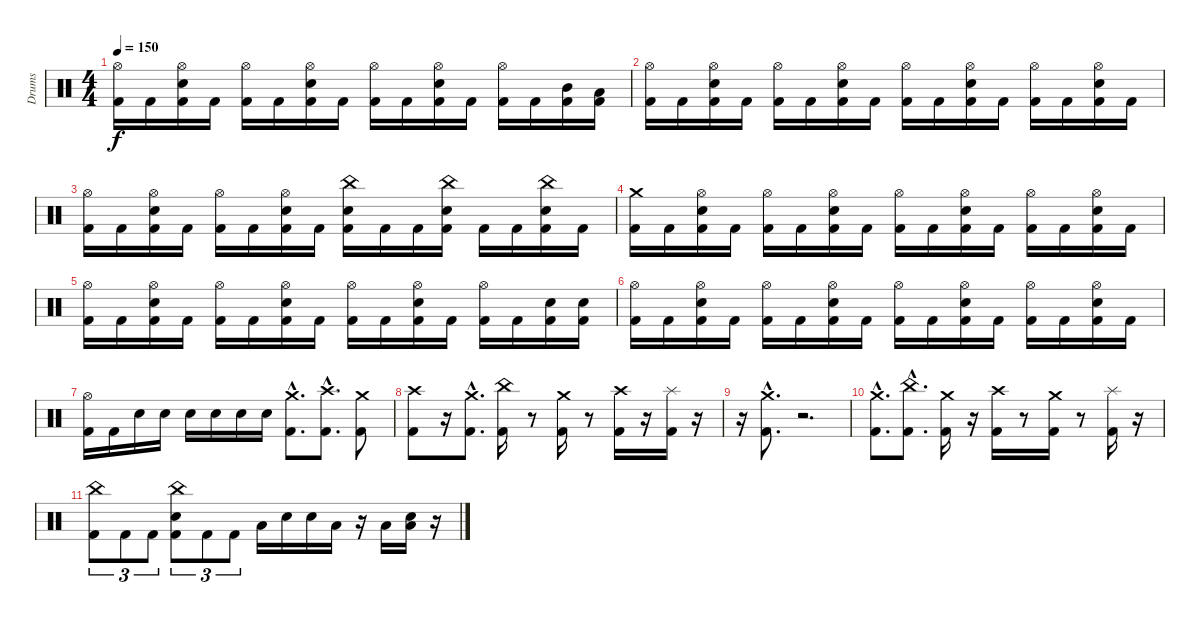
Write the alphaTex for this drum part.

\track ("Drums" "Drums") {instrument percussion}
\staff {score}
\articulation defaults
\ts (4 4)
\tempo 150
\clef neutral
\ks c
("Hi-Hat (open)" "Kick (hit) 2").16{dy f} "Kick (hit) 2".16 ("Hi-Hat (open)" "Electric Snare (hit)" "Kick (hit) 2").16 "Kick (hit) 2".16 ("Hi-Hat (open)" "Kick (hit) 2").16 "Kick (hit) 2".16 ("Hi-Hat (open)" "Electric Snare (hit)" "Kick (hit) 2").16 "Kick (hit) 2".16 ("Hi-Hat (open)" "Kick (hit) 2").16 "Kick (hit) 2".16 ("Hi-Hat (open)" "Electric Snare (hit)" "Kick (hit) 2").16 "Kick (hit) 2".16 ("Hi-Hat (open)" "Kick (hit) 2").16 "Kick (hit) 2".16 ("Mid Tom (hit)" "Kick (hit) 2").16 ("Low Tom (hit)" "Kick (hit) 2").16 |
("Hi-Hat (open)" "Kick (hit) 2").16 "Kick (hit) 2".16 ("Hi-Hat (open)" "Electric Snare (hit)" "Kick (hit) 2").16 "Kick (hit) 2".16 ("Hi-Hat (open)" "Kick (hit) 2").16 "Kick (hit) 2".16 ("Hi-Hat (open)" "Electric Snare (hit)" "Kick (hit) 2").16 "Kick (hit) 2".16 ("Hi-Hat (open)" "Kick (hit) 2").16 "Kick (hit) 2".16 ("Hi-Hat (open)" "Electric Snare (hit)" "Kick (hit) 2").16 "Kick (hit) 2".16 ("Hi-Hat (open)" "Kick (hit) 2").16 "Kick (hit) 2".16 ("Hi-Hat (open)" "Electric Snare (hit)" "Kick (hit) 2").16 "Kick (hit) 2".16 |
("Hi-Hat (open)" "Kick (hit) 2").16 "Kick (hit) 2".16 ("Hi-Hat (open)" "Electric Snare (hit)" "Kick (hit) 2").16 "Kick (hit) 2".16 ("Hi-Hat (open)" "Kick (hit) 2").16 "Kick (hit) 2".16 ("Hi-Hat (open)" "Electric Snare (hit)" "Kick (hit) 2").16 "Kick (hit) 2".16 ("Electric Snare (hit)" "Kick (hit) 2" "China (hit)").16 "Kick (hit) 2".16 "Kick (hit) 2".16 ("Electric Snare (hit)" "Kick (hit) 2" "China (hit)").16 "Kick (hit) 2".16 "Kick (hit) 2".16 ("Electric Snare (hit)" "Kick (hit) 2" "China (hit)").16 "Kick (hit) 2".16 |
("Crash medium (hit)" "Kick (hit) 2").16 "Kick (hit) 2".16 ("Hi-Hat (open)" "Electric Snare (hit)" "Kick (hit) 2").16 "Kick (hit) 2".16 ("Hi-Hat (open)" "Kick (hit) 2").16 "Kick (hit) 2".16 ("Hi-Hat (open)" "Electric Snare (hit)" "Kick (hit) 2").16 "Kick (hit) 2".16 ("Hi-Hat (open)" "Kick (hit) 2").16 "Kick (hit) 2".16 ("Hi-Hat (open)" "Electric Snare (hit)" "Kick (hit) 2").16 "Kick (hit) 2".16 ("Hi-Hat (open)" "Kick (hit) 2").16 "Kick (hit) 2".16 ("Hi-Hat (open)" "Electric Snare (hit)" "Kick (hit) 2").16 "Kick (hit) 2".16 |
("Hi-Hat (open)" "Kick (hit) 2").16 "Kick (hit) 2".16 ("Hi-Hat (open)" "Electric Snare (hit)" "Kick (hit) 2").16 "Kick (hit) 2".16 ("Hi-Hat (open)" "Kick (hit) 2").16 "Kick (hit) 2".16 ("Hi-Hat (open)" "Electric Snare (hit)" "Kick (hit) 2").16 "Kick (hit) 2".16 ("Hi-Hat (open)" "Kick (hit) 2").16 "Kick (hit) 2".16 ("Hi-Hat (open)" "Electric Snare (hit)" "Kick (hit) 2").16 "Kick (hit) 2".16 ("Hi-Hat (open)" "Kick (hit) 2").16 "Kick (hit) 2".16 ("Electric Snare (hit)" "Kick (hit) 2").16 ("Electric Snare (hit)" "Kick (hit) 2").16 |
("Hi-Hat (open)" "Kick (hit) 2").16 "Kick (hit) 2".16 ("Hi-Hat (open)" "Electric Snare (hit)" "Kick (hit) 2").16 "Kick (hit) 2".16 ("Hi-Hat (open)" "Kick (hit) 2").16 "Kick (hit) 2".16 ("Hi-Hat (open)" "Electric Snare (hit)" "Kick (hit) 2").16 "Kick (hit) 2".16 ("Hi-Hat (open)" "Kick (hit) 2").16 "Kick (hit) 2".16 ("Hi-Hat (open)" "Electric Snare (hit)" "Kick (hit) 2").16 "Kick (hit) 2".16 ("Hi-Hat (open)" "Kick (hit) 2").16 "Kick (hit) 2".16 ("Hi-Hat (open)" "Electric Snare (hit)" "Kick (hit) 2").16 "Kick (hit) 2".16 |
("Hi-Hat (open)" "Kick (hit) 2").16 "Kick (hit) 2".16 "Electric Snare (hit)".16 "Electric Snare (hit)".16 "Electric Snare (hit)".16 "Electric Snare (hit)".16 "Electric Snare (hit)".16 "Electric Snare (hit)".16 ("Crash medium (hit)" "Kick (hit) 2"{hac}).8{d} ("Crash high (hit)" "Kick (hit) 2"{hac}).8{d} ("Crash medium (hit)" "Kick (hit) 2").8 |
("Crash high (hit)" "Kick (hit) 2").8 r.16 ("Crash medium (hit)" "Kick (hit) 2"{hac}).8{d} ("China (hit)" "Kick (hit) 2").16 r.8 ("Crash medium (hit)" "Kick (hit) 2").16 r.8 ("Crash high (hit)" "Kick (hit) 2").16 r.16 ("Splash (hit)" "Kick (hit) 2").16 r.16 |
r.16 ("Crash medium (hit)" "Kick (hit) 2"{hac}).8{d} r.2{d} |
("Crash medium (hit)" "Kick (hit) 2"{hac}).8{d} ("China (hit)" "Kick (hit) 2"{hac}).8{d} ("Crash medium (hit)" "Kick (hit) 2").16 r.16 ("Crash high (hit)" "Kick (hit) 2").16 r.8 ("Crash medium (hit)" "Kick (hit) 2").16 r.8 ("Splash (hit)" "Kick (hit) 2").16 r.16 |
("Kick (hit) 2" "China (hit)").8{tu (3 2)} "Kick (hit) 2".8{tu (3 2)} "Kick (hit) 2".8{tu (3 2)} ("Electric Snare (hit)" "Kick (hit) 2" "China (hit)").8{tu (3 2)} "Kick (hit) 2".8{tu (3 2)} "Kick (hit) 2".8{tu (3 2)} "Low Tom (hit)".16 "Electric Snare (hit)".16 "Electric Snare (hit)".16 "Low Tom (hit)".16 r.16 "Low Tom (hit)".16 ("Low Tom (hit)" "Electric Snare (hit)").16 r.16
